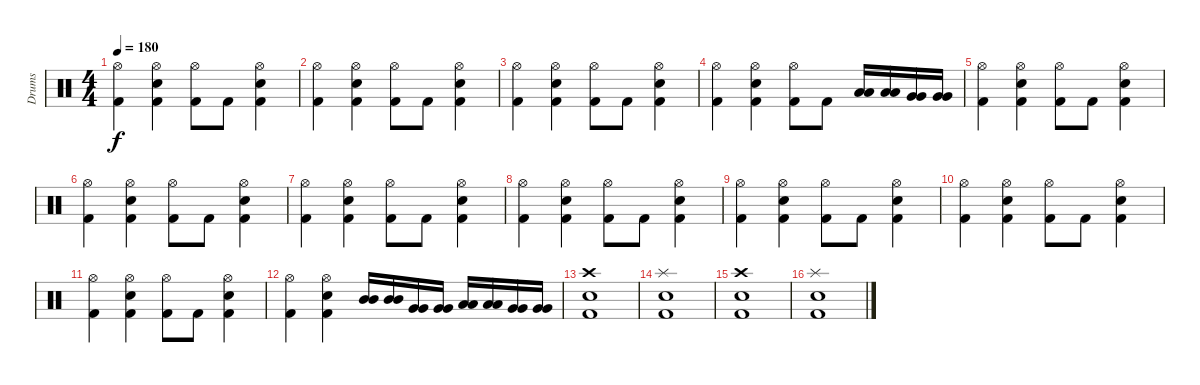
\track ("Drums" "Drums") {instrument percussion}
\staff {score}
\articulation defaults
\ts (4 4)
\tempo 180
\clef neutral
\ks c
("Hi-Hat (open)" "Kick (hit) 2").4{dy f} ("Hi-Hat (open)" "Snare (hit) 2" "Kick (hit) 2").4 ("Hi-Hat (open)" "Kick (hit) 2").8 "Kick (hit) 2".8 ("Hi-Hat (open)" "Snare (hit) 2" "Kick (hit) 2").4 |
("Hi-Hat (open)" "Kick (hit) 2").4 ("Hi-Hat (open)" "Snare (hit) 2" "Kick (hit) 2").4 ("Hi-Hat (open)" "Kick (hit) 2").8 "Kick (hit) 2".8 ("Hi-Hat (open)" "Snare (hit) 2" "Kick (hit) 2").4 |
("Hi-Hat (open)" "Kick (hit) 2").4 ("Hi-Hat (open)" "Snare (hit) 2" "Kick (hit) 2").4 ("Hi-Hat (open)" "Kick (hit) 2").8 "Kick (hit) 2".8 ("Hi-Hat (open)" "Snare (hit) 2" "Kick (hit) 2").4 |
("Hi-Hat (open)" "Kick (hit) 2").4 ("Hi-Hat (open)" "Snare (hit) 2" "Kick (hit) 2").4 ("Hi-Hat (open)" "Kick (hit) 2").8 "Kick (hit) 2".8 ("Low Tom (hit)" "Low Tom (hit)").16 ("Low Tom (hit)" "Low Tom (hit)").16 ("Very Low Tom (hit)" "Very Low Tom (hit)").16 ("Very Low Tom (hit)" "Very Low Tom (hit)").16 |
("Hi-Hat (open)" "Kick (hit) 2").4 ("Hi-Hat (open)" "Snare (hit) 2" "Kick (hit) 2").4 ("Hi-Hat (open)" "Kick (hit) 2").8 "Kick (hit) 2".8 ("Hi-Hat (open)" "Snare (hit) 2" "Kick (hit) 2").4 |
("Hi-Hat (open)" "Kick (hit) 2").4 ("Hi-Hat (open)" "Snare (hit) 2" "Kick (hit) 2").4 ("Hi-Hat (open)" "Kick (hit) 2").8 "Kick (hit) 2".8 ("Hi-Hat (open)" "Snare (hit) 2" "Kick (hit) 2").4 |
("Hi-Hat (open)" "Kick (hit) 2").4 ("Hi-Hat (open)" "Snare (hit) 2" "Kick (hit) 2").4 ("Hi-Hat (open)" "Kick (hit) 2").8 "Kick (hit) 2".8 ("Hi-Hat (open)" "Snare (hit) 2" "Kick (hit) 2").4 |
("Hi-Hat (open)" "Kick (hit) 2").4 ("Hi-Hat (open)" "Snare (hit) 2" "Kick (hit) 2").4 ("Hi-Hat (open)" "Kick (hit) 2").8 "Kick (hit) 2".8 ("Hi-Hat (open)" "Snare (hit) 2" "Kick (hit) 2").4 |
("Hi-Hat (open)" "Kick (hit) 2").4 ("Hi-Hat (open)" "Snare (hit) 2" "Kick (hit) 2").4 ("Hi-Hat (open)" "Kick (hit) 2").8 "Kick (hit) 2".8 ("Hi-Hat (open)" "Snare (hit) 2" "Kick (hit) 2").4 |
("Hi-Hat (open)" "Kick (hit) 2").4 ("Hi-Hat (open)" "Snare (hit) 2" "Kick (hit) 2").4 ("Hi-Hat (open)" "Kick (hit) 2").8 "Kick (hit) 2".8 ("Hi-Hat (open)" "Snare (hit) 2" "Kick (hit) 2").4 |
("Hi-Hat (open)" "Kick (hit) 2").4 ("Hi-Hat (open)" "Snare (hit) 2" "Kick (hit) 2").4 ("Hi-Hat (open)" "Kick (hit) 2").8 "Kick (hit) 2".8 ("Hi-Hat (open)" "Snare (hit) 2" "Kick (hit) 2").4 |
("Hi-Hat (open)" "Kick (hit) 2").4 ("Hi-Hat (open)" "Snare (hit) 2" "Kick (hit) 2").4 ("Mid Tom (hit)" "Mid Tom (hit)").16 ("Mid Tom (hit)" "Mid Tom (hit)").16 ("Very Low Tom (hit)" "Very Low Tom (hit)").16 ("Very Low Tom (hit)" "Very Low Tom (hit)").16 ("Low Tom (hit)" "Low Tom (hit)").16 ("Low Tom (hit)" "Low Tom (hit)").16 ("Very Low Tom (hit)" "Very Low Tom (hit)").16 ("Very Low Tom (hit)" "Very Low Tom (hit)").16 |
("Crash high (hit)" "Snare (hit) 2" "Kick (hit) 2").1 |
("Splash (hit)" "Snare (hit) 2" "Kick (hit) 2").1 |
("Crash high (hit)" "Snare (hit) 2" "Kick (hit) 2").1 |
("Splash (hit)" "Snare (hit) 2" "Kick (hit) 2").1
